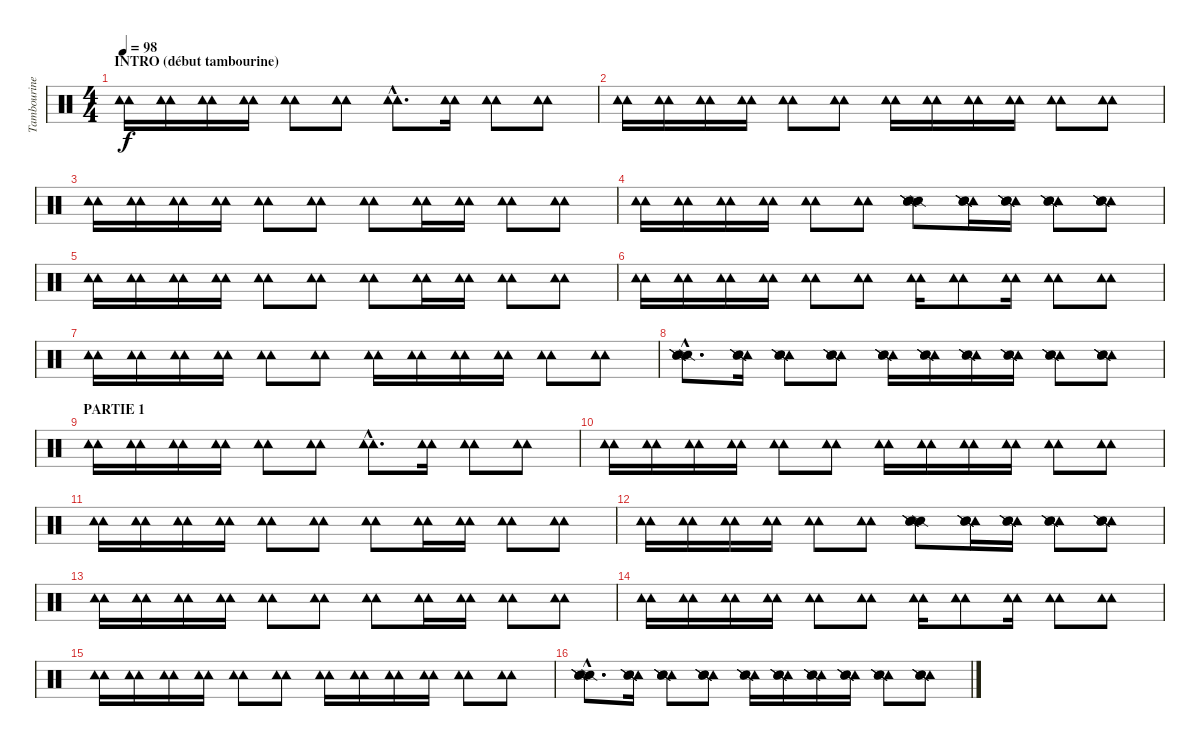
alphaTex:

\track ("Tambourine" "Tambourine") {instrument percussion}
\staff {score}
\articulation defaults
\ts (4 4)
\section ("" "INTRO (début tambourine)")
\tempo 98
\clef neutral
\ks c
("Tambourine (hit)" "Tambourine (hit)").16{dy f} ("Tambourine (hit)" "Tambourine (hit)").16 ("Tambourine (hit)" "Tambourine (hit)").16 ("Tambourine (hit)" "Tambourine (hit)").16 ("Tambourine (hit)" "Tambourine (hit)").8 ("Tambourine (hit)" "Tambourine (hit)").8 ("Tambourine (hit)"{hac} "Tambourine (hit)"{hac}).8{d} ("Tambourine (hit)" "Tambourine (hit)").16 ("Tambourine (hit)" "Tambourine (hit)").8 ("Tambourine (hit)" "Tambourine (hit)").8 |
("Tambourine (hit)" "Tambourine (hit)").16 ("Tambourine (hit)" "Tambourine (hit)").16 ("Tambourine (hit)" "Tambourine (hit)").16 ("Tambourine (hit)" "Tambourine (hit)").16 ("Tambourine (hit)" "Tambourine (hit)").8 ("Tambourine (hit)" "Tambourine (hit)").8 ("Tambourine (hit)" "Tambourine (hit)").16 ("Tambourine (hit)" "Tambourine (hit)").16 ("Tambourine (hit)" "Tambourine (hit)").16 ("Tambourine (hit)" "Tambourine (hit)").16 ("Tambourine (hit)" "Tambourine (hit)").8 ("Tambourine (hit)" "Tambourine (hit)").8 |
("Tambourine (hit)" "Tambourine (hit)").16 ("Tambourine (hit)" "Tambourine (hit)").16 ("Tambourine (hit)" "Tambourine (hit)").16 ("Tambourine (hit)" "Tambourine (hit)").16 ("Tambourine (hit)" "Tambourine (hit)").8 ("Tambourine (hit)" "Tambourine (hit)").8 ("Tambourine (hit)" "Tambourine (hit)").8 ("Tambourine (hit)" "Tambourine (hit)").16 ("Tambourine (hit)" "Tambourine (hit)").16 ("Tambourine (hit)" "Tambourine (hit)").8 ("Tambourine (hit)" "Tambourine (hit)").8 |
("Tambourine (hit)" "Tambourine (hit)").16 ("Tambourine (hit)" "Tambourine (hit)").16 ("Tambourine (hit)" "Tambourine (hit)").16 ("Tambourine (hit)" "Tambourine (hit)").16 ("Tambourine (hit)" "Tambourine (hit)").8 ("Tambourine (hit)" "Tambourine (hit)").8 ("Snare (side stick) 2" "Snare (side stick) 2" "Snare (side stick) 2" "Snare (side stick) 2").8 ("Tambourine (hit)" "Snare (side stick) 2" "Snare (side stick) 2" "Snare (side stick) 2").16 ("Tambourine (hit)" "Snare (side stick) 2" "Snare (side stick) 2" "Snare (side stick) 2").16 ("Tambourine (hit)" "Snare (side stick) 2" "Snare (side stick) 2" "Snare (side stick) 2").8 ("Tambourine (hit)" "Snare (side stick) 2" "Snare (side stick) 2" "Snare (side stick) 2").8 |
("Tambourine (hit)" "Tambourine (hit)").16 ("Tambourine (hit)" "Tambourine (hit)").16 ("Tambourine (hit)" "Tambourine (hit)").16 ("Tambourine (hit)" "Tambourine (hit)").16 ("Tambourine (hit)" "Tambourine (hit)").8 ("Tambourine (hit)" "Tambourine (hit)").8 ("Tambourine (hit)" "Tambourine (hit)").8 ("Tambourine (hit)" "Tambourine (hit)").16 ("Tambourine (hit)" "Tambourine (hit)").16 ("Tambourine (hit)" "Tambourine (hit)").8 ("Tambourine (hit)" "Tambourine (hit)").8 |
("Tambourine (hit)" "Tambourine (hit)").16 ("Tambourine (hit)" "Tambourine (hit)").16 ("Tambourine (hit)" "Tambourine (hit)").16 ("Tambourine (hit)" "Tambourine (hit)").16 ("Tambourine (hit)" "Tambourine (hit)").8 ("Tambourine (hit)" "Tambourine (hit)").8 ("Tambourine (hit)" "Tambourine (hit)").16 ("Tambourine (hit)" "Tambourine (hit)").8 ("Tambourine (hit)" "Tambourine (hit)").16 ("Tambourine (hit)" "Tambourine (hit)").8 ("Tambourine (hit)" "Tambourine (hit)").8 |
("Tambourine (hit)" "Tambourine (hit)").16 ("Tambourine (hit)" "Tambourine (hit)").16 ("Tambourine (hit)" "Tambourine (hit)").16 ("Tambourine (hit)" "Tambourine (hit)").16 ("Tambourine (hit)" "Tambourine (hit)").8 ("Tambourine (hit)" "Tambourine (hit)").8 ("Tambourine (hit)" "Tambourine (hit)").16 ("Tambourine (hit)" "Tambourine (hit)").16 ("Tambourine (hit)" "Tambourine (hit)").16 ("Tambourine (hit)" "Tambourine (hit)").16 ("Tambourine (hit)" "Tambourine (hit)").8 ("Tambourine (hit)" "Tambourine (hit)").8 |
("Snare (side stick) 2"{hac} "Snare (side stick) 2"{hac} "Snare (side stick) 2"{hac} "Snare (side stick) 2"{hac}).8{d} ("Tambourine (hit)" "Snare (side stick) 2" "Snare (side stick) 2" "Snare (side stick) 2").16 ("Tambourine (hit)" "Snare (side stick) 2" "Snare (side stick) 2" "Snare (side stick) 2").8 ("Tambourine (hit)" "Snare (side stick) 2" "Snare (side stick) 2" "Snare (side stick) 2").8 ("Tambourine (hit)" "Snare (side stick) 2" "Snare (side stick) 2" "Snare (side stick) 2").16 ("Tambourine (hit)" "Snare (side stick) 2" "Snare (side stick) 2" "Snare (side stick) 2").16 ("Tambourine (hit)" "Snare (side stick) 2" "Snare (side stick) 2" "Snare (side stick) 2").16 ("Tambourine (hit)" "Snare (side stick) 2" "Snare (side stick) 2" "Snare (side stick) 2").16 ("Tambourine (hit)" "Snare (side stick) 2" "Snare (side stick) 2" "Snare (side stick) 2").8 ("Tambourine (hit)" "Snare (side stick) 2" "Snare (side stick) 2" "Snare (side stick) 2").8 |
\section ("" "PARTIE 1")
("Tambourine (hit)" "Tambourine (hit)").16 ("Tambourine (hit)" "Tambourine (hit)").16 ("Tambourine (hit)" "Tambourine (hit)").16 ("Tambourine (hit)" "Tambourine (hit)").16 ("Tambourine (hit)" "Tambourine (hit)").8 ("Tambourine (hit)" "Tambourine (hit)").8 ("Tambourine (hit)"{hac} "Tambourine (hit)"{hac}).8{d} ("Tambourine (hit)" "Tambourine (hit)").16 ("Tambourine (hit)" "Tambourine (hit)").8 ("Tambourine (hit)" "Tambourine (hit)").8 |
("Tambourine (hit)" "Tambourine (hit)").16 ("Tambourine (hit)" "Tambourine (hit)").16 ("Tambourine (hit)" "Tambourine (hit)").16 ("Tambourine (hit)" "Tambourine (hit)").16 ("Tambourine (hit)" "Tambourine (hit)").8 ("Tambourine (hit)" "Tambourine (hit)").8 ("Tambourine (hit)" "Tambourine (hit)").16 ("Tambourine (hit)" "Tambourine (hit)").16 ("Tambourine (hit)" "Tambourine (hit)").16 ("Tambourine (hit)" "Tambourine (hit)").16 ("Tambourine (hit)" "Tambourine (hit)").8 ("Tambourine (hit)" "Tambourine (hit)").8 |
("Tambourine (hit)" "Tambourine (hit)").16 ("Tambourine (hit)" "Tambourine (hit)").16 ("Tambourine (hit)" "Tambourine (hit)").16 ("Tambourine (hit)" "Tambourine (hit)").16 ("Tambourine (hit)" "Tambourine (hit)").8 ("Tambourine (hit)" "Tambourine (hit)").8 ("Tambourine (hit)" "Tambourine (hit)").8 ("Tambourine (hit)" "Tambourine (hit)").16 ("Tambourine (hit)" "Tambourine (hit)").16 ("Tambourine (hit)" "Tambourine (hit)").8 ("Tambourine (hit)" "Tambourine (hit)").8 |
("Tambourine (hit)" "Tambourine (hit)").16 ("Tambourine (hit)" "Tambourine (hit)").16 ("Tambourine (hit)" "Tambourine (hit)").16 ("Tambourine (hit)" "Tambourine (hit)").16 ("Tambourine (hit)" "Tambourine (hit)").8 ("Tambourine (hit)" "Tambourine (hit)").8 ("Snare (side stick) 2" "Snare (side stick) 2" "Snare (side stick) 2" "Snare (side stick) 2").8 ("Tambourine (hit)" "Snare (side stick) 2" "Snare (side stick) 2" "Snare (side stick) 2").16 ("Tambourine (hit)" "Snare (side stick) 2" "Snare (side stick) 2" "Snare (side stick) 2").16 ("Tambourine (hit)" "Snare (side stick) 2" "Snare (side stick) 2" "Snare (side stick) 2").8 ("Tambourine (hit)" "Snare (side stick) 2" "Snare (side stick) 2" "Snare (side stick) 2").8 |
("Tambourine (hit)" "Tambourine (hit)").16 ("Tambourine (hit)" "Tambourine (hit)").16 ("Tambourine (hit)" "Tambourine (hit)").16 ("Tambourine (hit)" "Tambourine (hit)").16 ("Tambourine (hit)" "Tambourine (hit)").8 ("Tambourine (hit)" "Tambourine (hit)").8 ("Tambourine (hit)" "Tambourine (hit)").8 ("Tambourine (hit)" "Tambourine (hit)").16 ("Tambourine (hit)" "Tambourine (hit)").16 ("Tambourine (hit)" "Tambourine (hit)").8 ("Tambourine (hit)" "Tambourine (hit)").8 |
("Tambourine (hit)" "Tambourine (hit)").16 ("Tambourine (hit)" "Tambourine (hit)").16 ("Tambourine (hit)" "Tambourine (hit)").16 ("Tambourine (hit)" "Tambourine (hit)").16 ("Tambourine (hit)" "Tambourine (hit)").8 ("Tambourine (hit)" "Tambourine (hit)").8 ("Tambourine (hit)" "Tambourine (hit)").16 ("Tambourine (hit)" "Tambourine (hit)").8 ("Tambourine (hit)" "Tambourine (hit)").16 ("Tambourine (hit)" "Tambourine (hit)").8 ("Tambourine (hit)" "Tambourine (hit)").8 |
("Tambourine (hit)" "Tambourine (hit)").16 ("Tambourine (hit)" "Tambourine (hit)").16 ("Tambourine (hit)" "Tambourine (hit)").16 ("Tambourine (hit)" "Tambourine (hit)").16 ("Tambourine (hit)" "Tambourine (hit)").8 ("Tambourine (hit)" "Tambourine (hit)").8 ("Tambourine (hit)" "Tambourine (hit)").16 ("Tambourine (hit)" "Tambourine (hit)").16 ("Tambourine (hit)" "Tambourine (hit)").16 ("Tambourine (hit)" "Tambourine (hit)").16 ("Tambourine (hit)" "Tambourine (hit)").8 ("Tambourine (hit)" "Tambourine (hit)").8 |
("Snare (side stick) 2"{hac} "Snare (side stick) 2"{hac} "Snare (side stick) 2"{hac} "Snare (side stick) 2"{hac}).8{d} ("Tambourine (hit)" "Snare (side stick) 2" "Snare (side stick) 2" "Snare (side stick) 2").16 ("Tambourine (hit)" "Snare (side stick) 2" "Snare (side stick) 2" "Snare (side stick) 2").8 ("Tambourine (hit)" "Snare (side stick) 2" "Snare (side stick) 2" "Snare (side stick) 2").8 ("Tambourine (hit)" "Snare (side stick) 2" "Snare (side stick) 2" "Snare (side stick) 2").16 ("Tambourine (hit)" "Snare (side stick) 2" "Snare (side stick) 2" "Snare (side stick) 2").16 ("Tambourine (hit)" "Snare (side stick) 2" "Snare (side stick) 2" "Snare (side stick) 2").16 ("Tambourine (hit)" "Snare (side stick) 2" "Snare (side stick) 2" "Snare (side stick) 2").16 ("Tambourine (hit)" "Snare (side stick) 2" "Snare (side stick) 2" "Snare (side stick) 2").8 ("Tambourine (hit)" "Snare (side stick) 2" "Snare (side stick) 2" "Snare (side stick) 2").8
